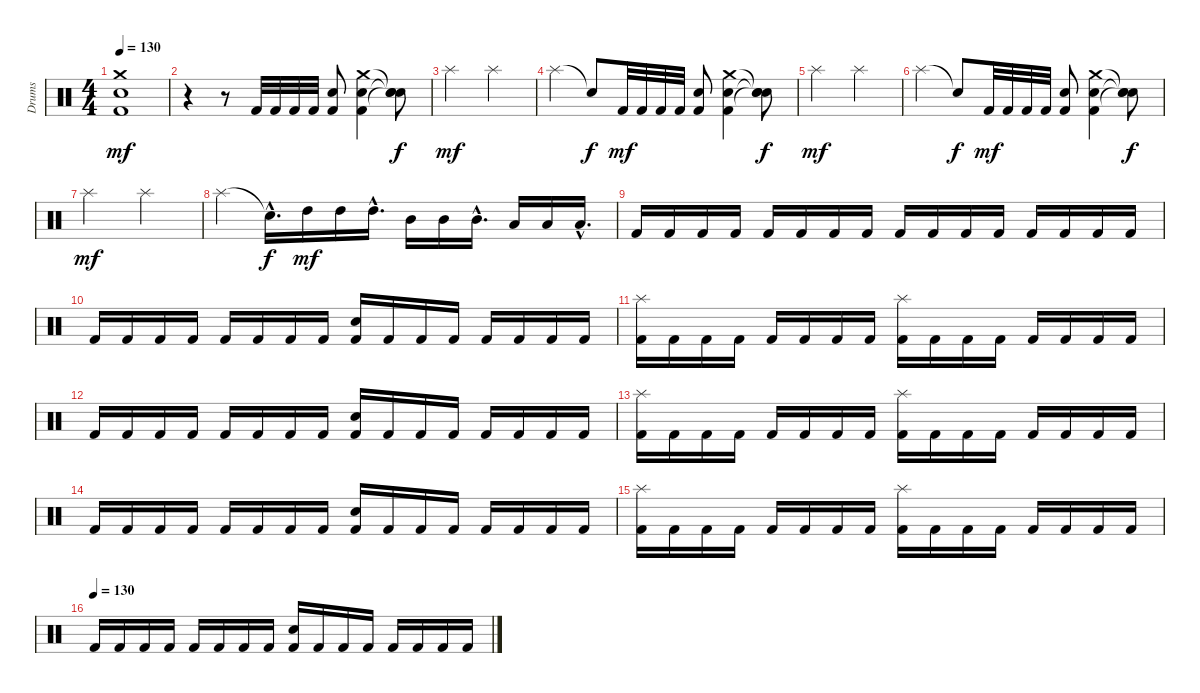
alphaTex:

\track ("Drums" "Drums") {instrument percussion}
\staff {score}
\articulation defaults
\ts (4 4)
\tempo 130
\clef neutral
\ks c
("Kick (hit) 2" "Snare (hit) 2" "Crash medium (hit)").1{dy mf volume 14} |
r.4 r.8 "Kick (hit) 2".32 "Kick (hit) 2".32 "Kick (hit) 2".32 "Kick (hit) 2".32 ("Kick (hit) 2" "Snare (hit) 2").8 ("Kick (hit) 2" "Snare (hit) 2" "Crash medium (hit)").4 ("Snare (hit)"{t} "Snare (hit)"{t} "Snare (hit)"{t}).8{dy f} |
"Splash (hit)".2{dy mf} "Splash (hit)".2 |
"Splash (hit)".4 "Snare (hit)"{t}.8{dy f} "Kick (hit) 2".32{dy mf} "Kick (hit) 2".32 "Kick (hit) 2".32 "Kick (hit) 2".32 ("Kick (hit) 2" "Snare (hit) 2").8 ("Kick (hit) 2" "Snare (hit) 2" "Crash medium (hit)").4 ("Snare (hit)"{t} "Snare (hit)"{t} "Snare (hit)"{t}).8{dy f} |
"Splash (hit)".2{dy mf} "Splash (hit)".2 |
"Splash (hit)".4 "Snare (hit)"{t}.8{dy f} "Kick (hit) 2".32{dy mf} "Kick (hit) 2".32 "Kick (hit) 2".32 "Kick (hit) 2".32 ("Kick (hit) 2" "Snare (hit) 2").8 ("Kick (hit) 2" "Snare (hit) 2" "Crash medium (hit)").4 ("Snare (hit)"{t} "Snare (hit)"{t} "Snare (hit)"{t}).8{dy f} |
"Splash (hit)".2{dy mf} "Splash (hit)".2 |
"Splash (hit)".4 "Snare (hit)"{hac t}.16{d dy f} "High Tom (hit)".16{dy mf} "High Tom (hit)".16 "High Tom (hit)"{hac}.16{d} "Mid Tom (hit)".16 "Mid Tom (hit)".16 "Mid Tom (hit)"{hac}.16{d} "Low Tom (hit)".16 "Low Tom (hit)".16 "Low Tom (hit)"{hac}.16{d} |
"Kick (hit) 2".16 "Kick (hit) 2".16 "Kick (hit) 2".16 "Kick (hit) 2".16 "Kick (hit) 2".16 "Kick (hit) 2".16 "Kick (hit) 2".16 "Kick (hit) 2".16 "Kick (hit) 2".16 "Kick (hit) 2".16 "Kick (hit) 2".16 "Kick (hit) 2".16 "Kick (hit) 2".16 "Kick (hit) 2".16 "Kick (hit) 2".16 "Kick (hit) 2".16 |
"Kick (hit) 2".16 "Kick (hit) 2".16 "Kick (hit) 2".16 "Kick (hit) 2".16 "Kick (hit) 2".16 "Kick (hit) 2".16 "Kick (hit) 2".16 "Kick (hit) 2".16 ("Kick (hit) 2" "Snare (hit) 2").16 "Kick (hit) 2".16 "Kick (hit) 2".16 "Kick (hit) 2".16 "Kick (hit) 2".16 "Kick (hit) 2".16 "Kick (hit) 2".16 "Kick (hit) 2".16 |
("Kick (hit) 2" "Splash (hit)").16 "Kick (hit) 2".16 "Kick (hit) 2".16 "Kick (hit) 2".16 "Kick (hit) 2".16 "Kick (hit) 2".16 "Kick (hit) 2".16 "Kick (hit) 2".16 ("Kick (hit) 2" "Splash (hit)").16 "Kick (hit) 2".16 "Kick (hit) 2".16 "Kick (hit) 2".16 "Kick (hit) 2".16 "Kick (hit) 2".16 "Kick (hit) 2".16 "Kick (hit) 2".16 |
"Kick (hit) 2".16 "Kick (hit) 2".16 "Kick (hit) 2".16 "Kick (hit) 2".16 "Kick (hit) 2".16 "Kick (hit) 2".16 "Kick (hit) 2".16 "Kick (hit) 2".16 ("Kick (hit) 2" "Snare (hit) 2").16 "Kick (hit) 2".16 "Kick (hit) 2".16 "Kick (hit) 2".16 "Kick (hit) 2".16 "Kick (hit) 2".16 "Kick (hit) 2".16 "Kick (hit) 2".16 |
("Kick (hit) 2" "Splash (hit)").16 "Kick (hit) 2".16 "Kick (hit) 2".16 "Kick (hit) 2".16 "Kick (hit) 2".16 "Kick (hit) 2".16 "Kick (hit) 2".16 "Kick (hit) 2".16 ("Kick (hit) 2" "Splash (hit)").16 "Kick (hit) 2".16 "Kick (hit) 2".16 "Kick (hit) 2".16 "Kick (hit) 2".16 "Kick (hit) 2".16 "Kick (hit) 2".16 "Kick (hit) 2".16 |
"Kick (hit) 2".16 "Kick (hit) 2".16 "Kick (hit) 2".16 "Kick (hit) 2".16 "Kick (hit) 2".16 "Kick (hit) 2".16 "Kick (hit) 2".16 "Kick (hit) 2".16 ("Kick (hit) 2" "Snare (hit) 2").16 "Kick (hit) 2".16 "Kick (hit) 2".16 "Kick (hit) 2".16 "Kick (hit) 2".16 "Kick (hit) 2".16 "Kick (hit) 2".16 "Kick (hit) 2".16 |
("Kick (hit) 2" "Splash (hit)").16 "Kick (hit) 2".16 "Kick (hit) 2".16 "Kick (hit) 2".16 "Kick (hit) 2".16 "Kick (hit) 2".16 "Kick (hit) 2".16 "Kick (hit) 2".16 ("Kick (hit) 2" "Splash (hit)").16 "Kick (hit) 2".16 "Kick (hit) 2".16 "Kick (hit) 2".16 "Kick (hit) 2".16 "Kick (hit) 2".16 "Kick (hit) 2".16 "Kick (hit) 2".16 |
\tempo (130)
"Kick (hit) 2".16 "Kick (hit) 2".16 "Kick (hit) 2".16 "Kick (hit) 2".16 "Kick (hit) 2".16 "Kick (hit) 2".16 "Kick (hit) 2".16 "Kick (hit) 2".16 ("Kick (hit) 2" "Snare (hit) 2").16 "Kick (hit) 2".16 "Kick (hit) 2".16 "Kick (hit) 2".16 "Kick (hit) 2".16 "Kick (hit) 2".16 "Kick (hit) 2".16 "Kick (hit) 2".16
